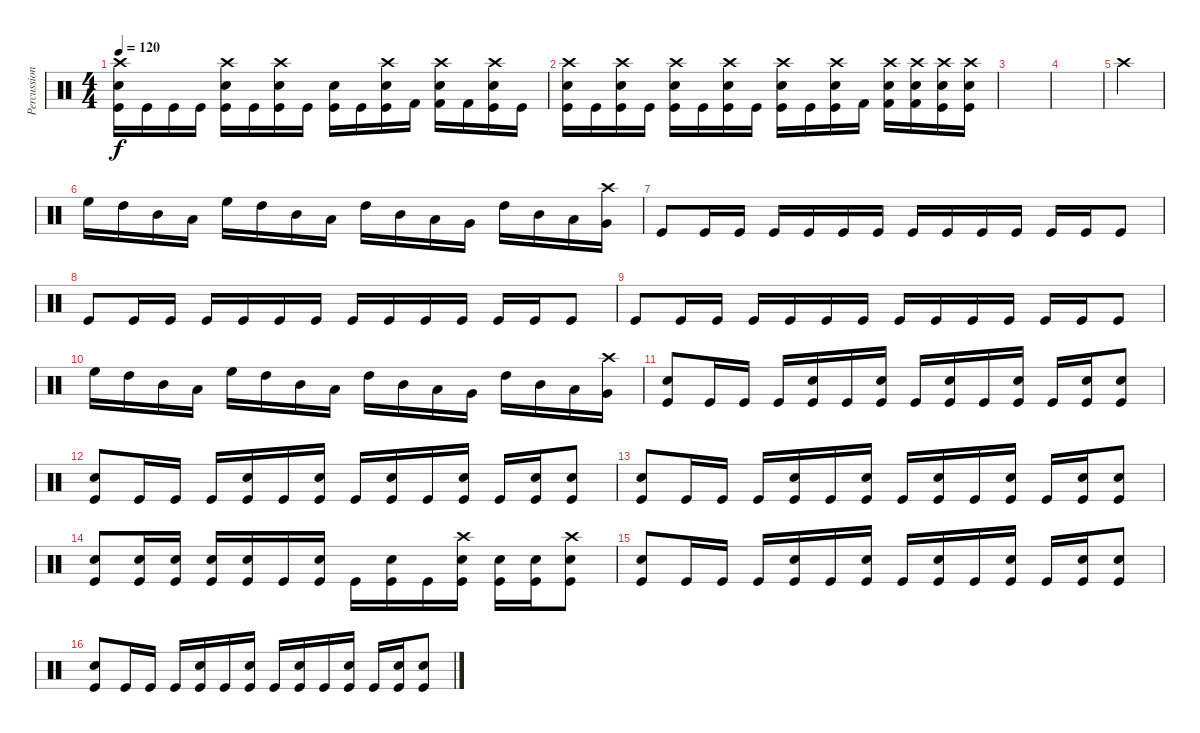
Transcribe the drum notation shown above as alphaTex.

\track ("Percussion" "Percussion") {instrument percussion}
\staff {score}
\articulation defaults
\ts (4 4)
\tempo 120
\clef neutral
\ks c
("Snare (hit) 2" "Kick (hit)" "Crash high (hit)").16{dy f} "Kick (hit)".16 "Kick (hit)".16 "Kick (hit)".16 ("Snare (hit) 2" "Kick (hit)" "Crash high (hit)").16 "Kick (hit)".16 ("Snare (hit) 2" "Kick (hit)" "Crash high (hit)").16 "Kick (hit)".16 ("Snare (hit) 2" "Kick (hit)").16 "Kick (hit)".16 ("Snare (hit) 2" "Kick (hit)" "Crash high (hit)").16 "Kick (hit) 2".16 ("Snare (hit) 2" "Kick (hit) 2" "Crash high (hit)").16 "Kick (hit) 2".16 ("Snare (hit) 2" "Kick (hit)" "Crash high (hit)").16 "Kick (hit)".16 |
("Snare (hit) 2" "Kick (hit)" "Crash high (hit)").16 "Kick (hit)".16 ("Snare (hit) 2" "Kick (hit)" "Crash high (hit)").16 "Kick (hit)".16 ("Snare (hit) 2" "Kick (hit)" "Crash high (hit)").16 "Kick (hit)".16 ("Snare (hit) 2" "Kick (hit)" "Crash high (hit)").16 "Kick (hit)".16 ("Snare (hit) 2" "Kick (hit)" "Crash high (hit)").16 "Kick (hit)".16 ("Snare (hit) 2" "Kick (hit)" "Crash high (hit)").16 "Kick (hit) 2".16 ("Snare (hit) 2" "Kick (hit) 2" "Crash high (hit)").16 ("Snare (hit) 2" "Kick (hit) 2" "Crash high (hit)").16 ("Snare (hit) 2" "Kick (hit)" "Crash high (hit)").16 ("Snare (hit) 2" "Kick (hit)" "Crash high (hit)").16 |
|
|
"Crash high (hit)".4 |
"High Floor Tom (hit)".16 "High Tom (hit)".16 "Mid Tom (hit)".16 "Low Tom (hit)".16 "High Floor Tom (hit)".16 "High Tom (hit)".16 "Mid Tom (hit)".16 "Low Tom (hit)".16 "High Tom (hit)".16 "Mid Tom (hit)".16 "Low Tom (hit)".16 "Very Low Tom (hit)".16 "High Tom (hit)".16 "Mid Tom (hit)".16 "Low Tom (hit)".16 ("Very Low Tom (hit)" "Crash high (hit)").16 |
"Kick (hit)".8 "Kick (hit)".16 "Kick (hit)".16 "Kick (hit)".16 "Kick (hit)".16 "Kick (hit)".16 "Kick (hit)".16 "Kick (hit)".16 "Kick (hit)".16 "Kick (hit)".16 "Kick (hit)".16 "Kick (hit)".16 "Kick (hit)".16 "Kick (hit)".8 |
"Kick (hit)".8 "Kick (hit)".16 "Kick (hit)".16 "Kick (hit)".16 "Kick (hit)".16 "Kick (hit)".16 "Kick (hit)".16 "Kick (hit)".16 "Kick (hit)".16 "Kick (hit)".16 "Kick (hit)".16 "Kick (hit)".16 "Kick (hit)".16 "Kick (hit)".8 |
"Kick (hit)".8 "Kick (hit)".16 "Kick (hit)".16 "Kick (hit)".16 "Kick (hit)".16 "Kick (hit)".16 "Kick (hit)".16 "Kick (hit)".16 "Kick (hit)".16 "Kick (hit)".16 "Kick (hit)".16 "Kick (hit)".16 "Kick (hit)".16 "Kick (hit)".8 |
"High Floor Tom (hit)".16 "High Tom (hit)".16 "Mid Tom (hit)".16 "Low Tom (hit)".16 "High Floor Tom (hit)".16 "High Tom (hit)".16 "Mid Tom (hit)".16 "Low Tom (hit)".16 "High Tom (hit)".16 "Mid Tom (hit)".16 "Low Tom (hit)".16 "Very Low Tom (hit)".16 "High Tom (hit)".16 "Mid Tom (hit)".16 "Low Tom (hit)".16 ("Very Low Tom (hit)" "Crash high (hit)").16 |
("Kick (hit)" "Snare (hit) 2").8 "Kick (hit)".16 "Kick (hit)".16 "Kick (hit)".16 ("Kick (hit)" "Snare (hit) 2").16 "Kick (hit)".16 ("Kick (hit)" "Snare (hit) 2").16 "Kick (hit)".16 ("Kick (hit)" "Snare (hit) 2").16 "Kick (hit)".16 ("Kick (hit)" "Snare (hit) 2").16 "Kick (hit)".16 ("Kick (hit)" "Snare (hit) 2").16 ("Kick (hit)" "Snare (hit) 2").8 |
("Kick (hit)" "Snare (hit) 2").8 "Kick (hit)".16 "Kick (hit)".16 "Kick (hit)".16 ("Kick (hit)" "Snare (hit) 2").16 "Kick (hit)".16 ("Kick (hit)" "Snare (hit) 2").16 "Kick (hit)".16 ("Kick (hit)" "Snare (hit) 2").16 "Kick (hit)".16 ("Kick (hit)" "Snare (hit) 2").16 "Kick (hit)".16 ("Kick (hit)" "Snare (hit) 2").16 ("Kick (hit)" "Snare (hit) 2").8 |
("Kick (hit)" "Snare (hit) 2").8 "Kick (hit)".16 "Kick (hit)".16 "Kick (hit)".16 ("Kick (hit)" "Snare (hit) 2").16 "Kick (hit)".16 ("Kick (hit)" "Snare (hit) 2").16 "Kick (hit)".16 ("Kick (hit)" "Snare (hit) 2").16 "Kick (hit)".16 ("Kick (hit)" "Snare (hit) 2").16 "Kick (hit)".16 ("Kick (hit)" "Snare (hit) 2").16 ("Kick (hit)" "Snare (hit) 2").8 |
("Kick (hit)" "Snare (hit) 2").8 ("Kick (hit)" "Snare (hit) 2").16 ("Kick (hit)" "Snare (hit) 2").16 ("Kick (hit)" "Snare (hit) 2").16 ("Kick (hit)" "Snare (hit) 2").16 "Kick (hit)".16 ("Kick (hit)" "Snare (hit) 2").16 "Kick (hit)".16 ("Kick (hit)" "Snare (hit) 2").16 "Kick (hit)".16 ("Kick (hit)" "Snare (hit) 2" "Crash high (hit)").16 ("Kick (hit)" "Snare (hit) 2").16 ("Kick (hit)" "Snare (hit) 2").16 ("Kick (hit)" "Snare (hit) 2" "Crash high (hit)").8 |
("Kick (hit)" "Snare (hit) 2").8 "Kick (hit)".16 "Kick (hit)".16 "Kick (hit)".16 ("Kick (hit)" "Snare (hit) 2").16 "Kick (hit)".16 ("Kick (hit)" "Snare (hit) 2").16 "Kick (hit)".16 ("Kick (hit)" "Snare (hit) 2").16 "Kick (hit)".16 ("Kick (hit)" "Snare (hit) 2").16 "Kick (hit)".16 ("Kick (hit)" "Snare (hit) 2").16 ("Kick (hit)" "Snare (hit) 2").8 |
("Kick (hit)" "Snare (hit) 2").8 "Kick (hit)".16 "Kick (hit)".16 "Kick (hit)".16 ("Kick (hit)" "Snare (hit) 2").16 "Kick (hit)".16 ("Kick (hit)" "Snare (hit) 2").16 "Kick (hit)".16 ("Kick (hit)" "Snare (hit) 2").16 "Kick (hit)".16 ("Kick (hit)" "Snare (hit) 2").16 "Kick (hit)".16 ("Kick (hit)" "Snare (hit) 2").16 ("Kick (hit)" "Snare (hit) 2").8
